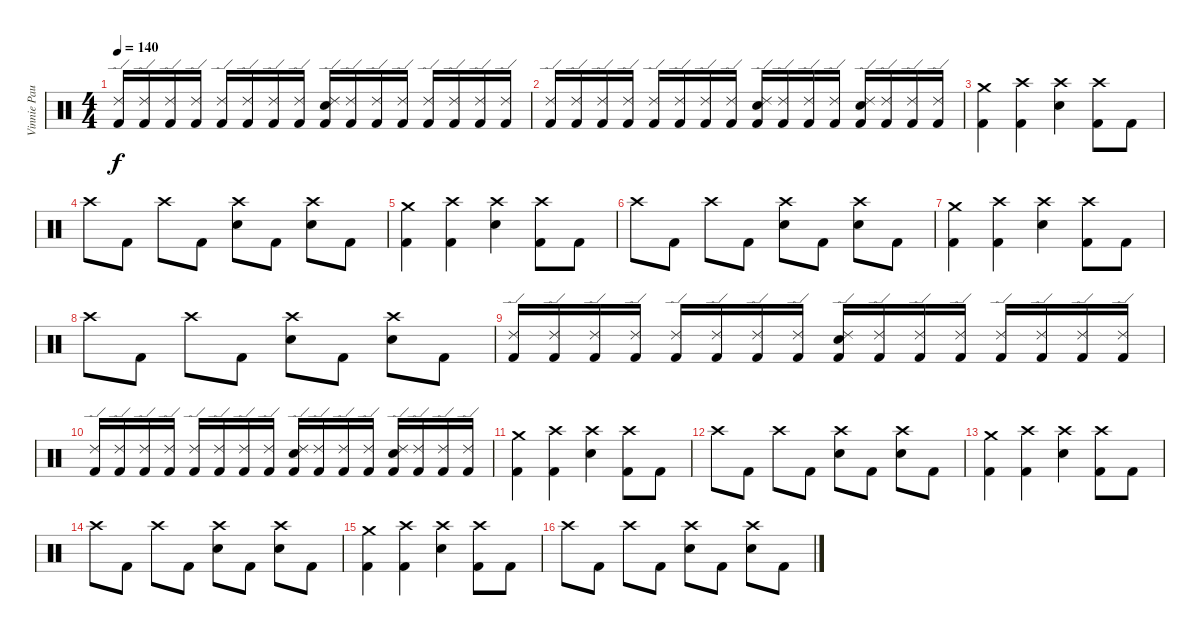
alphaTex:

\track ("Vinnie Paul" "Vinnie Pau") {instrument percussion}
\staff {score}
\articulation defaults
\ts (4 4)
\tempo 140
\clef neutral
\ks c
("Ride (edge) 2" "Kick (hit) 2").16{dy f} ("Ride (edge) 2" "Kick (hit) 2").16 ("Ride (edge) 2" "Kick (hit) 2").16 ("Ride (edge) 2" "Kick (hit) 2").16 ("Ride (edge) 2" "Kick (hit) 2").16 ("Ride (edge) 2" "Kick (hit) 2").16 ("Ride (edge) 2" "Kick (hit) 2").16 ("Ride (edge) 2" "Kick (hit) 2").16 ("Ride (edge) 2" "Snare (hit) 2" "Kick (hit) 2").16 ("Ride (edge) 2" "Kick (hit) 2").16 ("Ride (edge) 2" "Kick (hit) 2").16 ("Ride (edge) 2" "Kick (hit) 2").16 ("Ride (edge) 2" "Kick (hit) 2").16 ("Ride (edge) 2" "Kick (hit) 2").16 ("Ride (edge) 2" "Kick (hit) 2").16 ("Ride (edge) 2" "Kick (hit) 2").16 |
("Ride (edge) 2" "Kick (hit) 2").16 ("Ride (edge) 2" "Kick (hit) 2").16 ("Ride (edge) 2" "Kick (hit) 2").16 ("Ride (edge) 2" "Kick (hit) 2").16 ("Ride (edge) 2" "Kick (hit) 2").16 ("Ride (edge) 2" "Kick (hit) 2").16 ("Ride (edge) 2" "Kick (hit) 2").16 ("Ride (edge) 2" "Kick (hit) 2").16 ("Ride (edge) 2" "Snare (hit) 2" "Kick (hit) 2").16 ("Ride (edge) 2" "Kick (hit) 2").16 ("Ride (edge) 2" "Kick (hit) 2").16 ("Ride (edge) 2" "Kick (hit) 2").16 ("Ride (edge) 2" "Snare (hit) 2" "Kick (hit) 2").16 ("Ride (edge) 2" "Kick (hit) 2").16 ("Ride (edge) 2" "Kick (hit) 2").16 ("Ride (edge) 2" "Kick (hit) 2").16 |
("Crash medium (hit)" "Kick (hit) 2").4 ("Crash high (hit)" "Kick (hit) 2").4 ("Crash high (hit)" "Snare (hit) 2").4 ("Crash high (hit)" "Kick (hit) 2").8 "Kick (hit) 2".8 |
"Crash high (hit)".8 "Kick (hit) 2".8 "Crash high (hit)".8 "Kick (hit) 2".8 ("Crash high (hit)" "Snare (hit) 2").8 "Kick (hit) 2".8 ("Crash high (hit)" "Snare (hit) 2").8 "Kick (hit) 2".8 |
("Crash medium (hit)" "Kick (hit) 2").4 ("Crash high (hit)" "Kick (hit) 2").4 ("Crash high (hit)" "Snare (hit) 2").4 ("Crash high (hit)" "Kick (hit) 2").8 "Kick (hit) 2".8 |
"Crash high (hit)".8 "Kick (hit) 2".8 "Crash high (hit)".8 "Kick (hit) 2".8 ("Crash high (hit)" "Snare (hit) 2").8 "Kick (hit) 2".8 ("Crash high (hit)" "Snare (hit) 2").8 "Kick (hit) 2".8 |
("Crash medium (hit)" "Kick (hit) 2").4 ("Crash high (hit)" "Kick (hit) 2").4 ("Crash high (hit)" "Snare (hit) 2").4 ("Crash high (hit)" "Kick (hit) 2").8 "Kick (hit) 2".8 |
"Crash high (hit)".8 "Kick (hit) 2".8 "Crash high (hit)".8 "Kick (hit) 2".8 ("Crash high (hit)" "Snare (hit) 2").8 "Kick (hit) 2".8 ("Crash high (hit)" "Snare (hit) 2").8 "Kick (hit) 2".8 |
("Ride (edge) 2" "Kick (hit) 2").16 ("Ride (edge) 2" "Kick (hit) 2").16 ("Ride (edge) 2" "Kick (hit) 2").16 ("Ride (edge) 2" "Kick (hit) 2").16 ("Ride (edge) 2" "Kick (hit) 2").16 ("Ride (edge) 2" "Kick (hit) 2").16 ("Ride (edge) 2" "Kick (hit) 2").16 ("Ride (edge) 2" "Kick (hit) 2").16 ("Ride (edge) 2" "Snare (hit) 2" "Kick (hit) 2").16 ("Ride (edge) 2" "Kick (hit) 2").16 ("Ride (edge) 2" "Kick (hit) 2").16 ("Ride (edge) 2" "Kick (hit) 2").16 ("Ride (edge) 2" "Kick (hit) 2").16 ("Ride (edge) 2" "Kick (hit) 2").16 ("Ride (edge) 2" "Kick (hit) 2").16 ("Ride (edge) 2" "Kick (hit) 2").16 |
("Ride (edge) 2" "Kick (hit) 2").16 ("Ride (edge) 2" "Kick (hit) 2").16 ("Ride (edge) 2" "Kick (hit) 2").16 ("Ride (edge) 2" "Kick (hit) 2").16 ("Ride (edge) 2" "Kick (hit) 2").16 ("Ride (edge) 2" "Kick (hit) 2").16 ("Ride (edge) 2" "Kick (hit) 2").16 ("Ride (edge) 2" "Kick (hit) 2").16 ("Ride (edge) 2" "Snare (hit) 2" "Kick (hit) 2").16 ("Ride (edge) 2" "Kick (hit) 2").16 ("Ride (edge) 2" "Kick (hit) 2").16 ("Ride (edge) 2" "Kick (hit) 2").16 ("Ride (edge) 2" "Snare (hit) 2" "Kick (hit) 2").16 ("Ride (edge) 2" "Kick (hit) 2").16 ("Ride (edge) 2" "Kick (hit) 2").16 ("Ride (edge) 2" "Kick (hit) 2").16 |
("Crash medium (hit)" "Kick (hit) 2").4 ("Crash high (hit)" "Kick (hit) 2").4 ("Crash high (hit)" "Snare (hit) 2").4 ("Crash high (hit)" "Kick (hit) 2").8 "Kick (hit) 2".8 |
"Crash high (hit)".8 "Kick (hit) 2".8 "Crash high (hit)".8 "Kick (hit) 2".8 ("Crash high (hit)" "Snare (hit) 2").8 "Kick (hit) 2".8 ("Crash high (hit)" "Snare (hit) 2").8 "Kick (hit) 2".8 |
("Crash medium (hit)" "Kick (hit) 2").4 ("Crash high (hit)" "Kick (hit) 2").4 ("Crash high (hit)" "Snare (hit) 2").4 ("Crash high (hit)" "Kick (hit) 2").8 "Kick (hit) 2".8 |
"Crash high (hit)".8 "Kick (hit) 2".8 "Crash high (hit)".8 "Kick (hit) 2".8 ("Crash high (hit)" "Snare (hit) 2").8 "Kick (hit) 2".8 ("Crash high (hit)" "Snare (hit) 2").8 "Kick (hit) 2".8 |
("Crash medium (hit)" "Kick (hit) 2").4 ("Crash high (hit)" "Kick (hit) 2").4 ("Crash high (hit)" "Snare (hit) 2").4 ("Crash high (hit)" "Kick (hit) 2").8 "Kick (hit) 2".8 |
"Crash high (hit)".8 "Kick (hit) 2".8 "Crash high (hit)".8 "Kick (hit) 2".8 ("Crash high (hit)" "Snare (hit) 2").8 "Kick (hit) 2".8 ("Crash high (hit)" "Snare (hit) 2").8 "Kick (hit) 2".8
